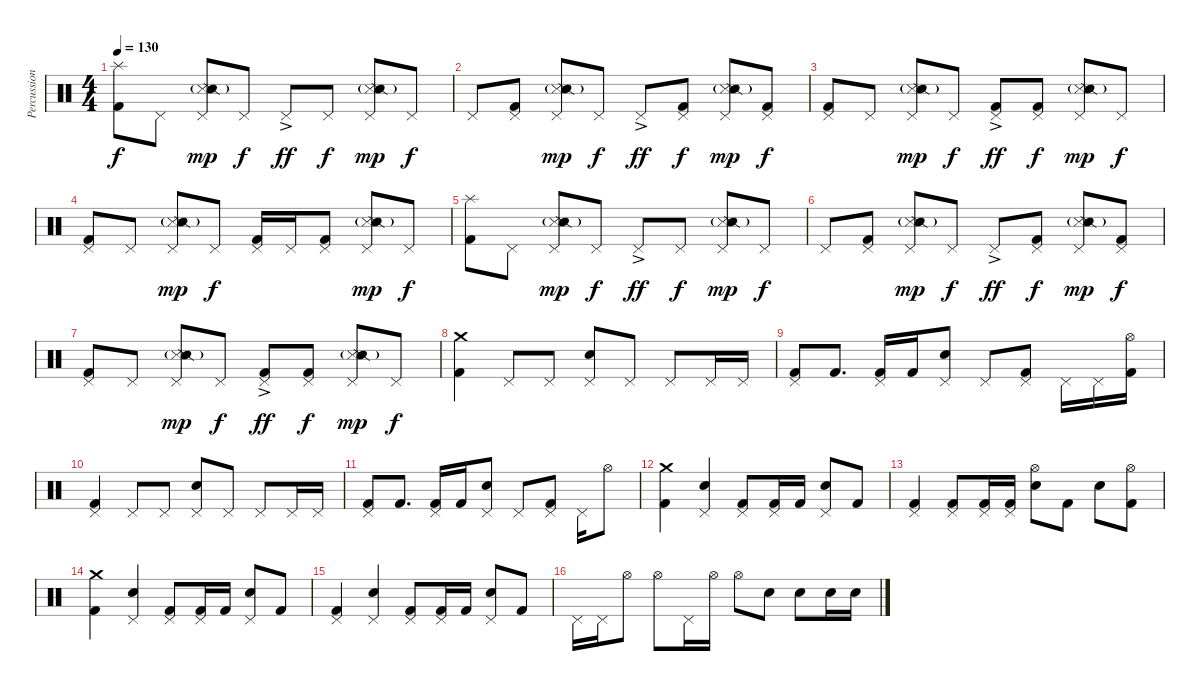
\track ("Percussion" "Percussion") {instrument percussion}
\staff {score}
\articulation defaults
\ts (4 4)
\tempo 130
\clef neutral
\ks c
("Splash (hit)" "Kick (hit) 2").8{dy f} "Pedal Hi-Hat (hit)".8 ("Pedal Hi-Hat (hit)" "Snare (side stick) 3" "Snare (side stick) 2"{g}).8{dy mp} "Pedal Hi-Hat (hit)".8{dy f} "Pedal Hi-Hat (hit)"{ac}.8{dy ff} "Pedal Hi-Hat (hit)".8{dy f} ("Pedal Hi-Hat (hit)" "Snare (side stick) 3" "Snare (side stick) 2"{g}).8{dy mp} "Pedal Hi-Hat (hit)".8{dy f} |
"Pedal Hi-Hat (hit)".8 ("Pedal Hi-Hat (hit)" "Kick (hit) 2").8 ("Pedal Hi-Hat (hit)" "Snare (side stick) 3" "Snare (side stick) 2"{g}).8{dy mp} "Pedal Hi-Hat (hit)".8{dy f} "Pedal Hi-Hat (hit)"{ac}.8{dy ff} ("Pedal Hi-Hat (hit)" "Kick (hit) 2").8{dy f} ("Pedal Hi-Hat (hit)" "Snare (side stick) 3" "Snare (side stick) 2"{g}).8{dy mp} ("Pedal Hi-Hat (hit)" "Kick (hit) 2").8{dy f} |
("Pedal Hi-Hat (hit)" "Kick (hit) 2").8 "Pedal Hi-Hat (hit)".8 ("Pedal Hi-Hat (hit)" "Snare (side stick) 3" "Snare (side stick) 2"{g}).8{dy mp} "Pedal Hi-Hat (hit)".8{dy f} ("Pedal Hi-Hat (hit)"{ac} "Kick (hit) 2").8{dy ff} ("Pedal Hi-Hat (hit)" "Kick (hit) 2").8{dy f} ("Pedal Hi-Hat (hit)" "Snare (side stick) 3" "Snare (side stick) 2"{g}).8{dy mp} "Pedal Hi-Hat (hit)".8{dy f} |
("Pedal Hi-Hat (hit)" "Kick (hit) 2").8 "Pedal Hi-Hat (hit)".8 ("Pedal Hi-Hat (hit)" "Snare (side stick) 3" "Snare (side stick) 2"{g}).8{dy mp} "Pedal Hi-Hat (hit)".8{dy f} ("Pedal Hi-Hat (hit)" "Kick (hit) 2").16 "Pedal Hi-Hat (hit)".16 ("Pedal Hi-Hat (hit)" "Kick (hit) 2").8 ("Pedal Hi-Hat (hit)" "Snare (side stick) 3" "Snare (side stick) 2"{g}).8{dy mp} "Pedal Hi-Hat (hit)".8{dy f} |
("Splash (hit)" "Kick (hit) 2").8 "Pedal Hi-Hat (hit)".8 ("Pedal Hi-Hat (hit)" "Snare (side stick) 3" "Snare (side stick) 2"{g}).8{dy mp} "Pedal Hi-Hat (hit)".8{dy f} "Pedal Hi-Hat (hit)"{ac}.8{dy ff} "Pedal Hi-Hat (hit)".8{dy f} ("Pedal Hi-Hat (hit)" "Snare (side stick) 3" "Snare (side stick) 2"{g}).8{dy mp} "Pedal Hi-Hat (hit)".8{dy f} |
"Pedal Hi-Hat (hit)".8 ("Pedal Hi-Hat (hit)" "Kick (hit) 2").8 ("Pedal Hi-Hat (hit)" "Snare (side stick) 3" "Snare (side stick) 2"{g}).8{dy mp} "Pedal Hi-Hat (hit)".8{dy f} "Pedal Hi-Hat (hit)"{ac}.8{dy ff} ("Pedal Hi-Hat (hit)" "Kick (hit) 2").8{dy f} ("Pedal Hi-Hat (hit)" "Snare (side stick) 3" "Snare (side stick) 2"{g}).8{dy mp} ("Pedal Hi-Hat (hit)" "Kick (hit) 2").8{dy f} |
("Pedal Hi-Hat (hit)" "Kick (hit) 2").8 "Pedal Hi-Hat (hit)".8 ("Pedal Hi-Hat (hit)" "Snare (side stick) 3" "Snare (side stick) 2"{g}).8{dy mp} "Pedal Hi-Hat (hit)".8{dy f} ("Pedal Hi-Hat (hit)"{ac} "Kick (hit) 2").8{dy ff} ("Pedal Hi-Hat (hit)" "Kick (hit) 2").8{dy f} ("Pedal Hi-Hat (hit)" "Snare (side stick) 3" "Snare (side stick) 2"{g}).8{dy mp} "Pedal Hi-Hat (hit)".8{dy f} |
("Crash medium (hit)" "Kick (hit) 2").4 "Pedal Hi-Hat (hit)".8 "Pedal Hi-Hat (hit)".8 ("Pedal Hi-Hat (hit)" "Electric Snare (hit)").8 "Pedal Hi-Hat (hit)".8 "Pedal Hi-Hat (hit)".8 "Pedal Hi-Hat (hit)".16 "Pedal Hi-Hat (hit)".16 |
("Pedal Hi-Hat (hit)" "Kick (hit) 2").8 "Kick (hit) 2".8{d} ("Pedal Hi-Hat (hit)" "Kick (hit) 2").16 "Kick (hit) 2".16 ("Pedal Hi-Hat (hit)" "Electric Snare (hit)").8 "Pedal Hi-Hat (hit)".8 ("Pedal Hi-Hat (hit)" "Kick (hit) 2").8 "Pedal Hi-Hat (hit)".16 "Pedal Hi-Hat (hit)".16 ("Hi-Hat (open)" "Kick (hit) 2").16 |
("Pedal Hi-Hat (hit)" "Kick (hit) 2").4 "Pedal Hi-Hat (hit)".8 "Pedal Hi-Hat (hit)".8 ("Pedal Hi-Hat (hit)" "Electric Snare (hit)").8 "Pedal Hi-Hat (hit)".8 "Pedal Hi-Hat (hit)".8 "Pedal Hi-Hat (hit)".16 "Pedal Hi-Hat (hit)".16 |
("Pedal Hi-Hat (hit)" "Kick (hit) 2").8 "Kick (hit) 2".8{d} ("Pedal Hi-Hat (hit)" "Kick (hit) 2").16 "Kick (hit) 2".16 ("Pedal Hi-Hat (hit)" "Electric Snare (hit)").8 "Pedal Hi-Hat (hit)".8 ("Pedal Hi-Hat (hit)" "Kick (hit) 2").8 "Pedal Hi-Hat (hit)".16 "Hi-Hat (open)".8 |
("Crash medium (hit)" "Kick (hit) 2").4 ("Electric Snare (hit)" "Pedal Hi-Hat (hit)").4 ("Pedal Hi-Hat (hit)" "Kick (hit) 2").8 ("Pedal Hi-Hat (hit)" "Kick (hit) 2").16 "Kick (hit) 2".16 ("Pedal Hi-Hat (hit)" "Electric Snare (hit)").8 "Kick (hit) 2".8 |
("Pedal Hi-Hat (hit)" "Kick (hit) 2").4 ("Pedal Hi-Hat (hit)" "Kick (hit) 2").8 ("Pedal Hi-Hat (hit)" "Kick (hit) 2").16 ("Pedal Hi-Hat (hit)" "Kick (hit) 2").16 ("Electric Snare (hit)" "Hi-Hat (open)").8 "Kick (hit) 2".8 "Electric Snare (hit)".8 ("Hi-Hat (open)" "Kick (hit) 2").8 |
("Crash medium (hit)" "Kick (hit) 2").4 ("Electric Snare (hit)" "Pedal Hi-Hat (hit)").4 ("Pedal Hi-Hat (hit)" "Kick (hit) 2").8 ("Pedal Hi-Hat (hit)" "Kick (hit) 2").16 "Kick (hit) 2".16 ("Pedal Hi-Hat (hit)" "Electric Snare (hit)").8 "Kick (hit) 2".8 |
("Pedal Hi-Hat (hit)" "Kick (hit) 2").4 ("Electric Snare (hit)" "Pedal Hi-Hat (hit)").4 ("Pedal Hi-Hat (hit)" "Kick (hit) 2").8 ("Pedal Hi-Hat (hit)" "Kick (hit) 2").16 "Kick (hit) 2".16 ("Pedal Hi-Hat (hit)" "Electric Snare (hit)").8 "Kick (hit) 2".8 |
"Pedal Hi-Hat (hit)".16 "Pedal Hi-Hat (hit)".16 "Hi-Hat (open)".8 "Hi-Hat (open)".8 "Pedal Hi-Hat (hit)".16 "Hi-Hat (open)".16 "Hi-Hat (open)".8 "Electric Snare (hit)".8 "Electric Snare (hit)".8 "Electric Snare (hit)".16 "Electric Snare (hit)".16
